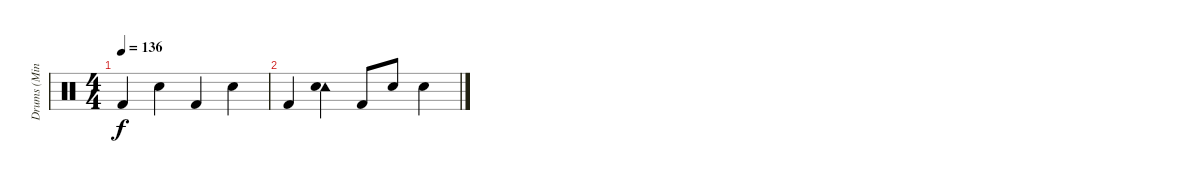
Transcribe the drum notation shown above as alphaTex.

\track ("Drums (Minato)" "Drums (Min") {instrument percussion}
\staff {score}
\articulation defaults
\ts (4 4)
\tempo 136
\clef neutral
\ks c "Kick (hit) 2".4{dy f} "Snare (hit) 2".4 "Kick (hit) 2".4 "Snare (hit) 2".4
|
"Kick (hit) 2".4 ("Tambourine (hit)" "Snare (hit) 2").4 "Kick (hit) 2".8 "Snare (hit) 2".8 "Snare (hit) 2".4
